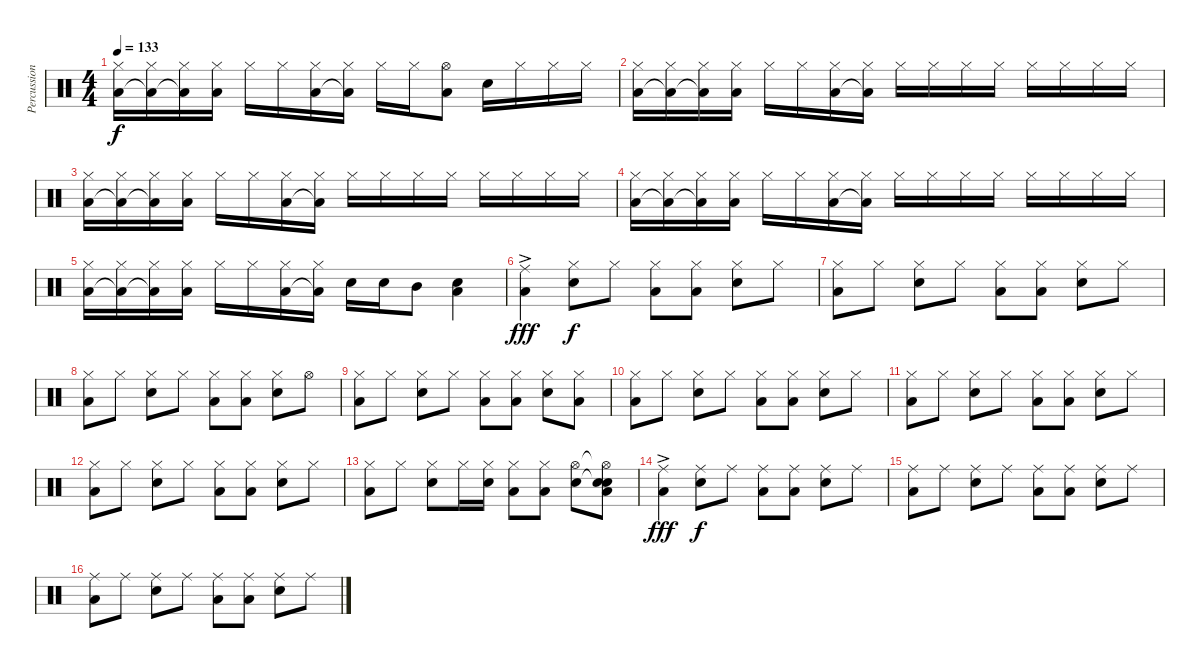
\track ("Percussion" "Percussion") {instrument percussion}
\staff {score}
\articulation defaults
\ts (4 4)
\tempo 133
\clef neutral
\ks c
("Hi-Hat (closed)" "Low Floor Tom (hit)").16{dy f} ("Hi-Hat (closed)" "Low Floor Tom (hit)"{t}).16 ("Hi-Hat (closed)" "Low Floor Tom (hit)"{t}).16 ("Hi-Hat (closed)" "Low Floor Tom (hit)").16 "Hi-Hat (closed)".16 "Hi-Hat (closed)".16 ("Hi-Hat (closed)" "Low Floor Tom (hit)").16 ("Hi-Hat (closed)" "Low Floor Tom (hit)"{t}).16 "Hi-Hat (closed)".16 "Hi-Hat (closed)".16 ("Hi-Hat (open)" "Low Floor Tom (hit)").8 "Snare (hit) 2".16 "Hi-Hat (closed)".16 "Hi-Hat (closed)".16 "Hi-Hat (closed)".16 |
("Hi-Hat (closed)" "Low Floor Tom (hit)").16 ("Hi-Hat (closed)" "Low Floor Tom (hit)"{t}).16 ("Hi-Hat (closed)" "Low Floor Tom (hit)"{t}).16 ("Hi-Hat (closed)" "Low Floor Tom (hit)").16 "Hi-Hat (closed)".16 "Hi-Hat (closed)".16 ("Hi-Hat (closed)" "Low Floor Tom (hit)").16 ("Hi-Hat (closed)" "Low Floor Tom (hit)"{t}).16 "Hi-Hat (closed)".16 "Hi-Hat (closed)".16 "Hi-Hat (closed)".16 "Hi-Hat (closed)".16 "Hi-Hat (closed)".16 "Hi-Hat (closed)".16 "Hi-Hat (closed)".16 "Hi-Hat (closed)".16 |
("Hi-Hat (closed)" "Low Floor Tom (hit)").16 ("Hi-Hat (closed)" "Low Floor Tom (hit)"{t}).16 ("Hi-Hat (closed)" "Low Floor Tom (hit)"{t}).16 ("Hi-Hat (closed)" "Low Floor Tom (hit)").16 "Hi-Hat (closed)".16 "Hi-Hat (closed)".16 ("Hi-Hat (closed)" "Low Floor Tom (hit)").16 ("Hi-Hat (closed)" "Low Floor Tom (hit)"{t}).16 "Hi-Hat (closed)".16 "Hi-Hat (closed)".16 "Hi-Hat (closed)".16 "Hi-Hat (closed)".16 "Hi-Hat (closed)".16 "Hi-Hat (closed)".16 "Hi-Hat (closed)".16 "Hi-Hat (closed)".16 |
("Hi-Hat (closed)" "Low Floor Tom (hit)").16 ("Hi-Hat (closed)" "Low Floor Tom (hit)"{t}).16 ("Hi-Hat (closed)" "Low Floor Tom (hit)"{t}).16 ("Hi-Hat (closed)" "Low Floor Tom (hit)").16 "Hi-Hat (closed)".16 "Hi-Hat (closed)".16 ("Hi-Hat (closed)" "Low Floor Tom (hit)").16 ("Hi-Hat (closed)" "Low Floor Tom (hit)"{t}).16 "Hi-Hat (closed)".16 "Hi-Hat (closed)".16 "Hi-Hat (closed)".16 "Hi-Hat (closed)".16 "Hi-Hat (closed)".16 "Hi-Hat (closed)".16 "Hi-Hat (closed)".16 "Hi-Hat (closed)".16 |
("Hi-Hat (closed)" "Low Floor Tom (hit)").16 ("Hi-Hat (closed)" "Low Floor Tom (hit)"{t}).16 ("Hi-Hat (closed)" "Low Floor Tom (hit)"{t}).16 ("Hi-Hat (closed)" "Low Floor Tom (hit)").16 "Hi-Hat (closed)".16 "Hi-Hat (closed)".16 ("Hi-Hat (closed)" "Low Floor Tom (hit)").16 ("Hi-Hat (closed)" "Low Floor Tom (hit)"{t}).16 "Snare (hit) 2".16 "Snare (hit) 2".16 "Mid Tom (hit)".8 ("Snare (hit) 2" "Low Floor Tom (hit)").4 |
("Ride (middle)"{ac} "Low Floor Tom (hit)").4{dy fff} ("Hi-Hat (closed)" "Snare (hit) 2").8{dy f} "Hi-Hat (closed)".8 ("Hi-Hat (closed)" "Low Floor Tom (hit)").8 ("Hi-Hat (closed)" "Low Floor Tom (hit)").8 ("Hi-Hat (closed)" "Snare (hit) 2").8 "Hi-Hat (closed)".8 |
("Hi-Hat (closed)" "Low Floor Tom (hit)").8 "Hi-Hat (closed)".8 ("Hi-Hat (closed)" "Snare (hit) 2").8 "Hi-Hat (closed)".8 ("Hi-Hat (closed)" "Low Floor Tom (hit)").8 ("Hi-Hat (closed)" "Low Floor Tom (hit)").8 ("Hi-Hat (closed)" "Snare (hit) 2").8 "Hi-Hat (closed)".8 |
("Hi-Hat (closed)" "Low Floor Tom (hit)").8 "Hi-Hat (closed)".8 ("Hi-Hat (closed)" "Snare (hit) 2").8 "Hi-Hat (closed)".8 ("Hi-Hat (closed)" "Low Floor Tom (hit)").8 ("Hi-Hat (closed)" "Low Floor Tom (hit)").8 ("Hi-Hat (closed)" "Snare (hit) 2").8 "Hi-Hat (open)".8 |
("Hi-Hat (closed)" "Low Floor Tom (hit)").8 "Hi-Hat (closed)".8 ("Hi-Hat (closed)" "Snare (hit) 2").8 "Hi-Hat (closed)".8 ("Hi-Hat (closed)" "Low Floor Tom (hit)").8 ("Hi-Hat (closed)" "Low Floor Tom (hit)").8 ("Hi-Hat (closed)" "Snare (hit) 2").8 ("Hi-Hat (closed)" "Low Floor Tom (hit)").8 |
("Hi-Hat (closed)" "Low Floor Tom (hit)").8 "Hi-Hat (closed)".8 ("Hi-Hat (closed)" "Snare (hit) 2").8 "Hi-Hat (closed)".8 ("Hi-Hat (closed)" "Low Floor Tom (hit)").8 ("Hi-Hat (closed)" "Low Floor Tom (hit)").8 ("Hi-Hat (closed)" "Snare (hit) 2").8 "Hi-Hat (closed)".8 |
("Hi-Hat (closed)" "Low Floor Tom (hit)").8 "Hi-Hat (closed)".8 ("Hi-Hat (closed)" "Snare (hit) 2").8 "Hi-Hat (closed)".8 ("Hi-Hat (closed)" "Low Floor Tom (hit)").8 ("Hi-Hat (closed)" "Low Floor Tom (hit)").8 ("Hi-Hat (closed)" "Snare (hit) 2").8 "Hi-Hat (closed)".8 |
("Hi-Hat (closed)" "Low Floor Tom (hit)").8 "Hi-Hat (closed)".8 ("Hi-Hat (closed)" "Snare (hit) 2").8 "Hi-Hat (closed)".8 ("Hi-Hat (closed)" "Low Floor Tom (hit)").8 ("Hi-Hat (closed)" "Low Floor Tom (hit)").8 ("Hi-Hat (closed)" "Snare (hit) 2").8 "Hi-Hat (closed)".8 |
("Hi-Hat (closed)" "Low Floor Tom (hit)").8 "Hi-Hat (closed)".8 ("Hi-Hat (closed)" "Snare (hit) 2").8 "Hi-Hat (closed)".16 ("Hi-Hat (closed)" "Snare (hit) 2").16 ("Hi-Hat (closed)" "Low Floor Tom (hit)").8 ("Hi-Hat (closed)" "Low Floor Tom (hit)").8 ("Hi-Hat (open)" "Snare (hit) 2").8 ("Hi-Hat (open)"{t} "Snare (hit)"{t} "Snare (hit) 2" "Low Floor Tom (hit)").8 |
("Ride (middle)"{ac} "Low Floor Tom (hit)").4{dy fff} ("Ride (middle)" "Snare (hit) 2").8{dy f} "Ride (middle)".8 ("Ride (middle)" "Low Floor Tom (hit)").8 ("Ride (middle)" "Low Floor Tom (hit)").8 ("Ride (middle)" "Snare (hit) 2").8 "Ride (middle)".8 |
("Ride (middle)" "Low Floor Tom (hit)").8 "Ride (middle)".8 ("Ride (middle)" "Snare (hit) 2").8 "Ride (middle)".8 ("Ride (middle)" "Low Floor Tom (hit)").8 ("Ride (middle)" "Low Floor Tom (hit)").8 ("Ride (middle)" "Snare (hit) 2").8 "Ride (middle)".8 |
("Ride (middle)" "Low Floor Tom (hit)").8 "Ride (middle)".8 ("Ride (middle)" "Snare (hit) 2").8 "Ride (middle)".8 ("Ride (middle)" "Low Floor Tom (hit)").8 ("Ride (middle)" "Low Floor Tom (hit)").8 ("Ride (middle)" "Snare (hit) 2").8 "Ride (middle)".8
